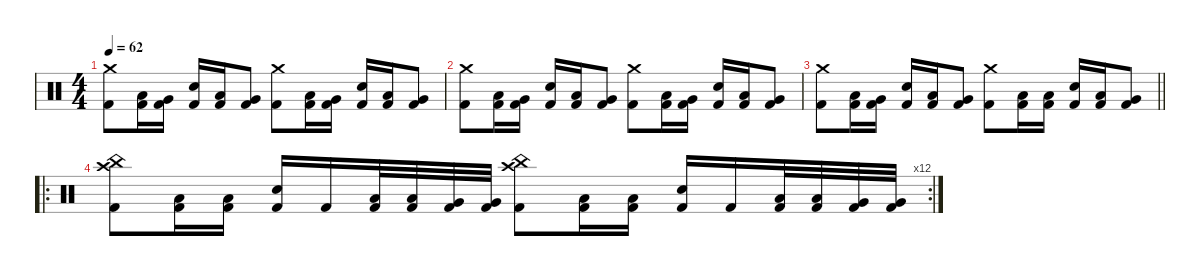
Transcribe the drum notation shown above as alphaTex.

\defaultSystemsLayout 4
\hideDynamics
\bracketExtendMode nobrackets
\singleTrackTrackNamePolicy hidden
\multiTrackTrackNamePolicy hidden
\firstSystemTrackNameMode fullname
\otherSystemsTrackNameOrientation horizontal
\track ("Drums" "drm.") {instrument percussion}
\staff {score}
\articulation defaults
\ts (4 4)
\tempo 62
\clef neutral
\ks c
("Crash medium (hit)" "Kick (hit) 2").8{dy f beam Down} ("Low Tom (hit)" "Kick (hit) 2").16{beam Down} ("Very Low Tom (hit)" "Kick (hit) 2").16{beam Down} ("Snare (hit) 2" "Kick (hit) 2").16{beam Up} ("Low Tom (hit)" "Kick (hit) 2").16{beam Up} ("Very Low Tom (hit)" "Kick (hit) 2").8{beam Up} ("Crash medium (hit)" "Kick (hit) 2").8{beam Down} ("Low Tom (hit)" "Kick (hit) 2").16{beam Down} ("Very Low Tom (hit)" "Kick (hit) 2").16{beam Down} ("Snare (hit) 2" "Kick (hit) 2").16{beam Up} ("Low Tom (hit)" "Kick (hit) 2").16{beam Up} ("Very Low Tom (hit)" "Kick (hit) 2").8{beam Up} |
("Crash medium (hit)" "Kick (hit) 2").8{beam Down} ("Low Tom (hit)" "Kick (hit) 2").16{beam Down} ("Very Low Tom (hit)" "Kick (hit) 2").16{beam Down} ("Snare (hit) 2" "Kick (hit) 2").16{beam Up} ("Low Tom (hit)" "Kick (hit) 2").16{beam Up} ("Very Low Tom (hit)" "Kick (hit) 2").8{beam Up} ("Crash medium (hit)" "Kick (hit) 2").8{beam Down} ("Low Tom (hit)" "Kick (hit) 2").16{beam Down} ("Very Low Tom (hit)" "Kick (hit) 2").16{beam Down} ("Snare (hit) 2" "Kick (hit) 2").16{beam Up} ("Low Tom (hit)" "Kick (hit) 2").16{beam Up} ("Very Low Tom (hit)" "Kick (hit) 2").8{beam Up} |
\barLineRight lightlight
("Crash medium (hit)" "Kick (hit) 2").8{beam Down} ("Low Tom (hit)" "Kick (hit) 2").16{beam Down} ("Very Low Tom (hit)" "Kick (hit) 2").16{beam Down} ("Snare (hit) 2" "Kick (hit) 2").16{beam Up} ("Low Tom (hit)" "Kick (hit) 2").16{beam Up} ("Very Low Tom (hit)" "Kick (hit) 2").8{beam Up} ("Crash medium (hit)" "Kick (hit) 2").8{beam Down} ("Low Tom (hit)" "Kick (hit) 2").16{beam Down} ("Low Tom (hit)" "Kick (hit) 2").16{beam Down} ("Snare (hit) 2" "Kick (hit) 2").16{beam Up} ("Low Tom (hit)" "Kick (hit) 2").16{beam Up} ("Very Low Tom (hit)" "Kick (hit) 2").8{beam Up} |
\ro
\rc 12
("Crash high (hit)" "China (hit)" "Kick (hit) 2").8{beam Down} ("Low Tom (hit)" "Kick (hit) 2").16{beam Down} ("Low Tom (hit)" "Kick (hit) 2").16{beam Down} ("Snare (hit) 2" "Kick (hit) 2").16{beam Up} "Kick (hit) 2".16{beam Up} ("Low Tom (hit)" "Kick (hit) 2").32{beam Up} ("Low Tom (hit)" "Kick (hit) 2").32{beam Up} ("Very Low Tom (hit)" "Kick (hit) 2").32{beam Up} ("Very Low Tom (hit)" "Kick (hit) 2").32{beam Up} ("Crash high (hit)" "China (hit)" "Kick (hit) 2").8{beam Down} ("Low Tom (hit)" "Kick (hit) 2").16{beam Down} ("Low Tom (hit)" "Kick (hit) 2").16{beam Down} ("Snare (hit) 2" "Kick (hit) 2").16{beam Up} "Kick (hit) 2".16{beam Up} ("Low Tom (hit)" "Kick (hit) 2").32{beam Up} ("Low Tom (hit)" "Kick (hit) 2").32{beam Up} ("Very Low Tom (hit)" "Kick (hit) 2").32{beam Up} ("Very Low Tom (hit)" "Kick (hit) 2").32{beam Up}
